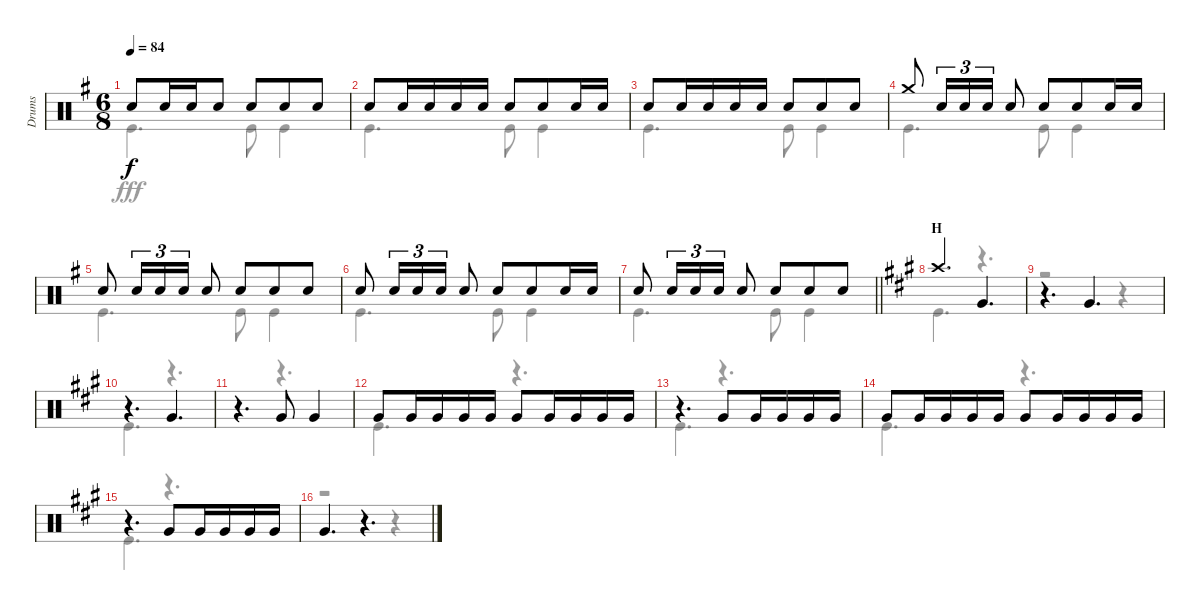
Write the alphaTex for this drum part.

\track ("Drums" "Drums") {instrument percussion}
\staff {score}
\articulation defaults
\voice
\ts (6 8)
\tempo 84
\clef neutral
\ks g "Snare (hit) 2".8{dy f} "Snare (hit) 2".16 "Snare (hit) 2".16 "Snare (hit) 2".8 "Snare (hit) 2".8 "Snare (hit) 2".8 "Snare (hit) 2".8
|
"Snare (hit) 2".8 "Snare (hit) 2".16 "Snare (hit) 2".16 "Snare (hit) 2".16 "Snare (hit) 2".16 "Snare (hit) 2".8 "Snare (hit) 2".8 "Snare (hit) 2".16 "Snare (hit) 2".16 |
"Snare (hit) 2".8 "Snare (hit) 2".16 "Snare (hit) 2".16 "Snare (hit) 2".16 "Snare (hit) 2".16 "Snare (hit) 2".8 "Snare (hit) 2".8 "Snare (hit) 2".8 |
"Crash medium (hit)".8 "Snare (hit) 2".16{tu (3 2)} "Snare (hit) 2".16{tu (3 2)} "Snare (hit) 2".16{tu (3 2)} "Snare (hit) 2".8 "Snare (hit) 2".8 "Snare (hit) 2".8 "Snare (hit) 2".16 "Snare (hit) 2".16 |
"Snare (hit) 2".8 "Snare (hit) 2".16{tu (3 2)} "Snare (hit) 2".16{tu (3 2)} "Snare (hit) 2".16{tu (3 2)} "Snare (hit) 2".8 "Snare (hit) 2".8 "Snare (hit) 2".8 "Snare (hit) 2".8 |
"Snare (hit) 2".8 "Snare (hit) 2".16{tu (3 2)} "Snare (hit) 2".16{tu (3 2)} "Snare (hit) 2".16{tu (3 2)} "Snare (hit) 2".8 "Snare (hit) 2".8 "Snare (hit) 2".8 "Snare (hit) 2".16 "Snare (hit) 2".16 |
\barLineRight lightlight "Snare (hit) 2".8 "Snare (hit) 2".16{tu (3 2)} "Snare (hit) 2".16{tu (3 2)} "Snare (hit) 2".16{tu (3 2)} "Snare (hit) 2".8 "Snare (hit) 2".8 "Snare (hit) 2".8 "Snare (hit) 2".8
|
\section ("" "H")
\ks a "Crash high (hit)".4{d} "Very Low Tom (hit)".4{d}
|
r.4{d} "Very Low Tom (hit)".4{d} |
r.4{d} "Very Low Tom (hit)".4{d} |
r.4{d} "Very Low Tom (hit)".8 "Very Low Tom (hit)".4 |
"Very Low Tom (hit)".8 "Very Low Tom (hit)".16 "Very Low Tom (hit)".16 "Very Low Tom (hit)".16 "Very Low Tom (hit)".16 "Very Low Tom (hit)".8 "Very Low Tom (hit)".16 "Very Low Tom (hit)".16 "Very Low Tom (hit)".16 "Very Low Tom (hit)".16 |
r.4{d} "Very Low Tom (hit)".8 "Very Low Tom (hit)".16 "Very Low Tom (hit)".16 "Very Low Tom (hit)".16 "Very Low Tom (hit)".16 |
"Very Low Tom (hit)".8 "Very Low Tom (hit)".16 "Very Low Tom (hit)".16 "Very Low Tom (hit)".16 "Very Low Tom (hit)".16 "Very Low Tom (hit)".8 "Very Low Tom (hit)".16 "Very Low Tom (hit)".16 "Very Low Tom (hit)".16 "Very Low Tom (hit)".16 |
r.4{d} "Very Low Tom (hit)".8 "Very Low Tom (hit)".16 "Very Low Tom (hit)".16 "Very Low Tom (hit)".16 "Very Low Tom (hit)".16 |
"Very Low Tom (hit)".4{d} r.4{d}
\voice
\clef neutral
\ottava regular
\simile none
\ks g "Kick (hit)".4{d dy fff} "Kick (hit)".8 "Kick (hit)".4
|
"Kick (hit)".4{d} "Kick (hit)".8 "Kick (hit)".4 |
"Kick (hit)".4{d} "Kick (hit)".8 "Kick (hit)".4 |
"Kick (hit)".4{d} "Kick (hit)".8 "Kick (hit)".4 |
"Kick (hit)".4{d} "Kick (hit)".8 "Kick (hit)".4 |
"Kick (hit)".4{d} "Kick (hit)".8 "Kick (hit)".4 |
\barLineRight lightlight "Kick (hit)".4{d} "Kick (hit)".8 "Kick (hit)".4
|
\ks a "Kick (hit)".4{d}
r.4{d} |
r.2 r.4 |
"Kick (hit)".4{d} r.4{d} |
r.4{d} r.4{d} |
"Kick (hit)".4{d} r.4{d} |
"Kick (hit)".4{d} r.4{d} |
"Kick (hit)".4{d} r.4{d} |
"Kick (hit)".4{d} r.4{d} |
r.2 r.4
